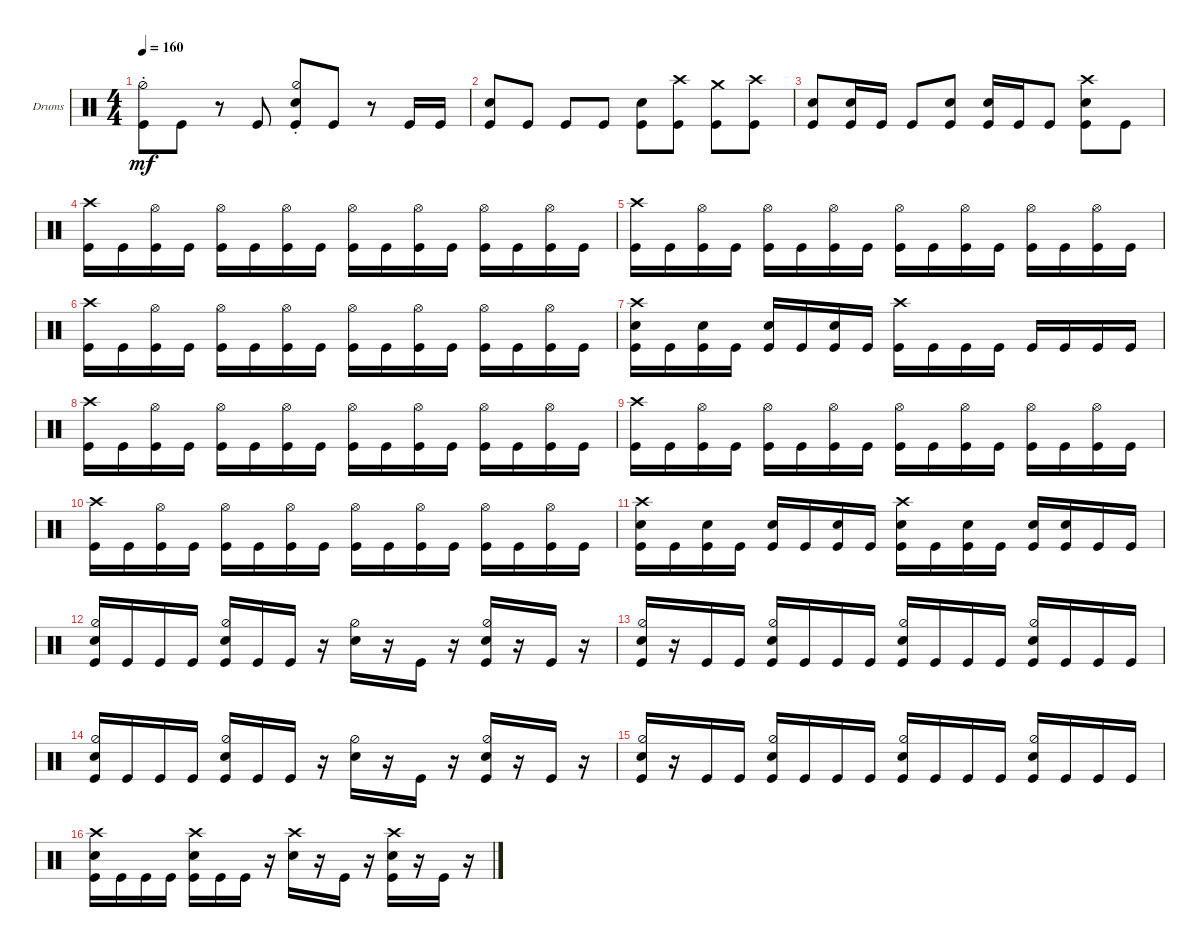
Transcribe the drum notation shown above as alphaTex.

\bracketExtendMode groupsimilarinstruments
\firstSystemTrackNameOrientation horizontal
\otherSystemsTrackNameOrientation horizontal
\track ("Drums" "Drums") {instrument percussion}
\staff {score}
\articulation defaults
\ts (4 4)
\tempo 160
\clef neutral
\scale
0.333333
\ks c
("Kick (hit)" "Hi-Hat (half)"{st}).8{dy mf} "Kick (hit)".8 r.8 "Kick (hit)".8 ("Snare (hit) 2" "Kick (hit)" "Hi-Hat (half)"{st}).8 "Kick (hit)".8 r.8 "Kick (hit)".16 "Kick (hit)".16 |
\scale
0.333333 ("Kick (hit)" "Snare (hit) 2").8 "Kick (hit)".8 "Kick (hit)".8 "Kick (hit)".8 ("Kick (hit)" "Snare (hit) 2").8 ("Kick (hit)" "Crash high (hit)").8 ("Kick (hit)" "Crash medium (hit)").8 ("Kick (hit)" "Crash high (hit)").8 |
\scale
0.333333 ("Snare (hit) 2" "Kick (hit)").8 ("Snare (hit) 2" "Kick (hit)").16 "Kick (hit)".16 "Kick (hit)".8 ("Kick (hit)" "Snare (hit) 2").8 ("Kick (hit)" "Snare (hit) 2").16 "Kick (hit)".16 "Kick (hit)".8 ("Kick (hit)" "Snare (hit) 2" "Crash high (hit)").8 "Kick (hit)".8 |
\scale
0.333333 ("Kick (hit)" "Crash high (hit)").16 "Kick (hit)".16 ("Kick (hit)" "Hi-Hat (open)").16 "Kick (hit)".16 ("Kick (hit)" "Hi-Hat (open)").16 "Kick (hit)".16 ("Kick (hit)" "Hi-Hat (open)").16 "Kick (hit)".16 ("Kick (hit)" "Hi-Hat (open)").16 "Kick (hit)".16 ("Kick (hit)" "Hi-Hat (open)").16 "Kick (hit)".16 ("Kick (hit)" "Hi-Hat (open)").16 "Kick (hit)".16 ("Kick (hit)" "Hi-Hat (open)").16 "Kick (hit)".16 |
\scale
0.333333 ("Kick (hit)" "Crash high (hit)").16 "Kick (hit)".16 ("Kick (hit)" "Hi-Hat (open)").16 "Kick (hit)".16 ("Kick (hit)" "Hi-Hat (open)").16 "Kick (hit)".16 ("Kick (hit)" "Hi-Hat (open)").16 "Kick (hit)".16 ("Kick (hit)" "Hi-Hat (open)").16 "Kick (hit)".16 ("Kick (hit)" "Hi-Hat (open)").16 "Kick (hit)".16 ("Kick (hit)" "Hi-Hat (open)").16 "Kick (hit)".16 ("Kick (hit)" "Hi-Hat (open)").16 "Kick (hit)".16 |
\scale
0.333333 ("Kick (hit)" "Crash high (hit)").16 "Kick (hit)".16 ("Kick (hit)" "Hi-Hat (open)").16 "Kick (hit)".16 ("Kick (hit)" "Hi-Hat (open)").16 "Kick (hit)".16 ("Kick (hit)" "Hi-Hat (open)").16 "Kick (hit)".16 ("Kick (hit)" "Hi-Hat (open)").16 "Kick (hit)".16 ("Kick (hit)" "Hi-Hat (open)").16 "Kick (hit)".16 ("Kick (hit)" "Hi-Hat (open)").16 "Kick (hit)".16 ("Kick (hit)" "Hi-Hat (open)").16 "Kick (hit)".16 |
\scale
0.333333 ("Kick (hit)" "Snare (hit) 2" "Crash high (hit)").16 "Kick (hit)".16 ("Kick (hit)" "Snare (hit) 2").16 "Kick (hit)".16 ("Kick (hit)" "Snare (hit) 2").16 "Kick (hit)".16 ("Kick (hit)" "Snare (hit) 2").16 "Kick (hit)".16 ("Kick (hit)" "Crash high (hit)").16 "Kick (hit)".16 "Kick (hit)".16 "Kick (hit)".16 "Kick (hit)".16 "Kick (hit)".16 "Kick (hit)".16 "Kick (hit)".16 |
\scale
0.333333 ("Kick (hit)" "Crash high (hit)").16 "Kick (hit)".16 ("Kick (hit)" "Hi-Hat (open)").16 "Kick (hit)".16 ("Kick (hit)" "Hi-Hat (open)").16 "Kick (hit)".16 ("Kick (hit)" "Hi-Hat (open)").16 "Kick (hit)".16 ("Kick (hit)" "Hi-Hat (open)").16 "Kick (hit)".16 ("Kick (hit)" "Hi-Hat (open)").16 "Kick (hit)".16 ("Kick (hit)" "Hi-Hat (open)").16 "Kick (hit)".16 ("Kick (hit)" "Hi-Hat (open)").16 "Kick (hit)".16 |
\scale
0.333333 ("Kick (hit)" "Crash high (hit)").16 "Kick (hit)".16 ("Kick (hit)" "Hi-Hat (open)").16 "Kick (hit)".16 ("Kick (hit)" "Hi-Hat (open)").16 "Kick (hit)".16 ("Kick (hit)" "Hi-Hat (open)").16 "Kick (hit)".16 ("Kick (hit)" "Hi-Hat (open)").16 "Kick (hit)".16 ("Kick (hit)" "Hi-Hat (open)").16 "Kick (hit)".16 ("Kick (hit)" "Hi-Hat (open)").16 "Kick (hit)".16 ("Kick (hit)" "Hi-Hat (open)").16 "Kick (hit)".16 |
\scale
0.333333 ("Kick (hit)" "Crash high (hit)").16 "Kick (hit)".16 ("Kick (hit)" "Hi-Hat (open)").16 "Kick (hit)".16 ("Kick (hit)" "Hi-Hat (open)").16 "Kick (hit)".16 ("Kick (hit)" "Hi-Hat (open)").16 "Kick (hit)".16 ("Kick (hit)" "Hi-Hat (open)").16 "Kick (hit)".16 ("Kick (hit)" "Hi-Hat (open)").16 "Kick (hit)".16 ("Kick (hit)" "Hi-Hat (open)").16 "Kick (hit)".16 ("Kick (hit)" "Hi-Hat (open)").16 "Kick (hit)".16 |
\scale
0.333333 ("Kick (hit)" "Snare (hit) 2" "Crash high (hit)").16 "Kick (hit)".16 ("Kick (hit)" "Snare (hit) 2").16 "Kick (hit)".16 ("Kick (hit)" "Snare (hit) 2").16 "Kick (hit)".16 ("Kick (hit)" "Snare (hit) 2").16 "Kick (hit)".16 ("Kick (hit)" "Snare (hit) 2" "Crash high (hit)").16 "Kick (hit)".16 ("Kick (hit)" "Snare (hit) 2").16 "Kick (hit)".16 ("Kick (hit)" "Snare (hit) 2").16 ("Kick (hit)" "Snare (hit) 2").16 "Kick (hit)".16 "Kick (hit)".16 |
\scale
0.333333 ("Kick (hit)" "Snare (hit) 2" "Hi-Hat (half)").16 "Kick (hit)".16 "Kick (hit)".16 "Kick (hit)".16 ("Kick (hit)" "Snare (hit) 2" "Hi-Hat (half)").16 "Kick (hit)".16 "Kick (hit)".16 r.16 ("Snare (hit) 2" "Hi-Hat (half)").16 r.16 "Kick (hit)".16 r.16 ("Kick (hit)" "Snare (hit) 2" "Hi-Hat (half)").16 r.16 "Kick (hit)".16 r.16 |
\scale
0.333333 ("Kick (hit)" "Snare (hit) 2" "Hi-Hat (half)").16 r.16 "Kick (hit)".16 "Kick (hit)".16 ("Kick (hit)" "Snare (hit) 2" "Hi-Hat (half)").16 "Kick (hit)".16 "Kick (hit)".16 "Kick (hit)".16 ("Kick (hit)" "Snare (hit) 2" "Hi-Hat (half)").16 "Kick (hit)".16 "Kick (hit)".16 "Kick (hit)".16 ("Kick (hit)" "Snare (hit) 2" "Hi-Hat (half)").16 "Kick (hit)".16 "Kick (hit)".16 "Kick (hit)".16 |
\scale
0.333333 ("Kick (hit)" "Snare (hit) 2" "Hi-Hat (half)").16 "Kick (hit)".16 "Kick (hit)".16 "Kick (hit)".16 ("Kick (hit)" "Snare (hit) 2" "Hi-Hat (half)").16 "Kick (hit)".16 "Kick (hit)".16 r.16 ("Snare (hit) 2" "Hi-Hat (half)").16 r.16 "Kick (hit)".16 r.16 ("Kick (hit)" "Snare (hit) 2" "Hi-Hat (half)").16 r.16 "Kick (hit)".16 r.16 |
\scale
0.333333 ("Kick (hit)" "Snare (hit) 2" "Hi-Hat (half)").16 r.16 "Kick (hit)".16 "Kick (hit)".16 ("Kick (hit)" "Snare (hit) 2" "Hi-Hat (half)").16 "Kick (hit)".16 "Kick (hit)".16 "Kick (hit)".16 ("Kick (hit)" "Snare (hit) 2" "Hi-Hat (half)").16 "Kick (hit)".16 "Kick (hit)".16 "Kick (hit)".16 ("Kick (hit)" "Snare (hit) 2" "Hi-Hat (half)").16 "Kick (hit)".16 "Kick (hit)".16 "Kick (hit)".16 |
\scale
0.333333 ("Kick (hit)" "Snare (hit) 2" "Crash high (hit)").16 "Kick (hit)".16 "Kick (hit)".16 "Kick (hit)".16 ("Kick (hit)" "Snare (hit) 2" "Crash high (hit)").16 "Kick (hit)".16 "Kick (hit)".16 r.16 ("Snare (hit) 2" "Crash high (hit)").16 r.16 "Kick (hit)".16 r.16 ("Kick (hit)" "Snare (hit) 2" "Crash high (hit)").16 r.16 "Kick (hit)".16 r.16
